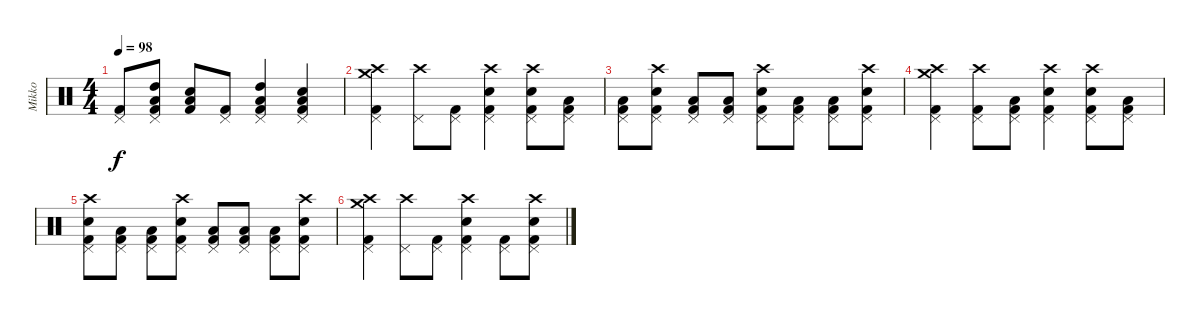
\track ("Mikko" "Mikko") {instrument percussion}
\staff {score}
\articulation defaults
\ts (4 4)
\tempo 98
\clef neutral
\ks c
("Pedal Hi-Hat (hit)" "Kick (hit) 2").8{dy f} ("High Tom (hit)" "Low Floor Tom (hit)" "Pedal Hi-Hat (hit)" "Kick (hit) 2").8 ("Low Floor Tom (hit)" "Electric Snare (hit)" "Kick (hit) 2").8 ("Pedal Hi-Hat (hit)" "Kick (hit) 2").8 ("High Tom (hit)" "Low Tom (hit)" "Pedal Hi-Hat (hit)" "Kick (hit) 2").4 ("Pedal Hi-Hat (hit)" "Low Floor Tom (hit)" "Electric Snare (hit)" "Kick (hit) 2").4 |
("Crash high (hit)" "Crash medium (hit)" "Pedal Hi-Hat (hit)" "Kick (hit) 2").4 ("Crash high (hit)" "Pedal Hi-Hat (hit)").8 ("Pedal Hi-Hat (hit)" "Kick (hit) 2").8 ("Crash high (hit)" "Electric Snare (hit)" "Pedal Hi-Hat (hit)" "Kick (hit) 2").4 ("Crash high (hit)" "Pedal Hi-Hat (hit)" "Electric Snare (hit)" "Kick (hit) 2").8 ("Low Tom (hit)" "Pedal Hi-Hat (hit)" "Kick (hit) 2").8 |
("Low Tom (hit)" "Pedal Hi-Hat (hit)" "Kick (hit) 2").8 ("Crash high (hit)" "Electric Snare (hit)" "Pedal Hi-Hat (hit)" "Kick (hit) 2").8 ("Low Tom (hit)" "Pedal Hi-Hat (hit)" "Kick (hit) 2").8 ("Low Tom (hit)" "Pedal Hi-Hat (hit)" "Kick (hit) 2").8 ("Crash high (hit)" "Electric Snare (hit)" "Pedal Hi-Hat (hit)" "Kick (hit) 2").8 ("Low Tom (hit)" "Pedal Hi-Hat (hit)" "Kick (hit) 2").8 ("Low Tom (hit)" "Pedal Hi-Hat (hit)" "Kick (hit) 2").8 ("Crash high (hit)" "Electric Snare (hit)" "Pedal Hi-Hat (hit)" "Kick (hit) 2").8 |
("Crash high (hit)" "Crash medium (hit)" "Pedal Hi-Hat (hit)" "Kick (hit) 2").4 ("Crash high (hit)" "Pedal Hi-Hat (hit)" "Kick (hit) 2").8 ("Low Tom (hit)" "Pedal Hi-Hat (hit)" "Kick (hit) 2").8 ("Crash high (hit)" "Electric Snare (hit)" "Pedal Hi-Hat (hit)" "Kick (hit) 2").4 ("Crash high (hit)" "Pedal Hi-Hat (hit)" "Electric Snare (hit)" "Kick (hit) 2").8 ("Low Tom (hit)" "Pedal Hi-Hat (hit)" "Kick (hit) 2").8 |
("Crash high (hit)" "Electric Snare (hit)" "Pedal Hi-Hat (hit)" "Kick (hit) 2").8 ("Low Tom (hit)" "Pedal Hi-Hat (hit)" "Kick (hit) 2").8 ("Low Tom (hit)" "Pedal Hi-Hat (hit)" "Kick (hit) 2").8 ("Crash high (hit)" "Electric Snare (hit)" "Pedal Hi-Hat (hit)" "Kick (hit) 2").8 ("Low Tom (hit)" "Pedal Hi-Hat (hit)" "Kick (hit) 2").8 ("Low Tom (hit)" "Pedal Hi-Hat (hit)" "Kick (hit) 2").8 ("Low Tom (hit)" "Pedal Hi-Hat (hit)" "Kick (hit) 2").8 ("Crash high (hit)" "Electric Snare (hit)" "Pedal Hi-Hat (hit)" "Kick (hit) 2").8 |
("Crash high (hit)" "Crash medium (hit)" "Pedal Hi-Hat (hit)" "Kick (hit) 2").4 ("Crash high (hit)" "Pedal Hi-Hat (hit)").8 ("Pedal Hi-Hat (hit)" "Kick (hit) 2").8 ("Crash high (hit)" "Electric Snare (hit)" "Pedal Hi-Hat (hit)" "Kick (hit) 2").4 ("Pedal Hi-Hat (hit)" "Kick (hit) 2").8 ("Crash high (hit)" "Electric Snare (hit)" "Pedal Hi-Hat (hit)" "Kick (hit) 2").8
